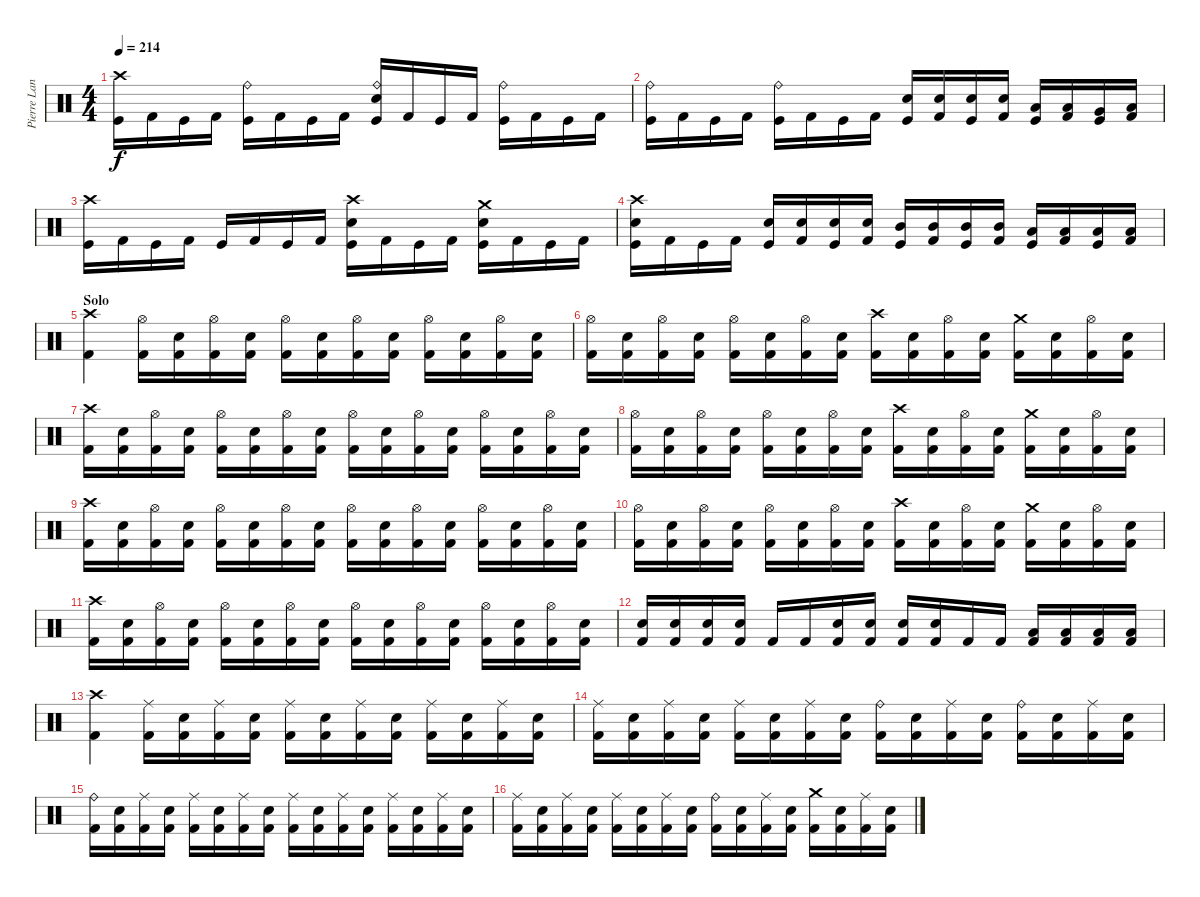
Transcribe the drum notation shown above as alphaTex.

\track ("Pierre Langlois (Drums)" "Pierre Lan") {instrument percussion}
\staff {score}
\articulation defaults
\ts (4 4)
\tempo 214
\clef neutral
\ks c
("Crash high (hit)" "Kick (hit)").16{dy f} "Kick (hit) 2".16 "Kick (hit)".16 "Kick (hit) 2".16 ("Ride (bell)" "Kick (hit)").16 "Kick (hit) 2".16 "Kick (hit)".16 "Kick (hit) 2".16 ("Ride (bell)" "Snare (hit) 2" "Kick (hit)").16 "Kick (hit) 2".16 "Kick (hit)".16 "Kick (hit) 2".16 ("Ride (bell)" "Kick (hit)").16 "Kick (hit) 2".16 "Kick (hit)".16 "Kick (hit) 2".16 |
("Ride (bell)" "Kick (hit)").16 "Kick (hit) 2".16 "Kick (hit)".16 "Kick (hit) 2".16 ("Ride (bell)" "Kick (hit)").16 "Kick (hit) 2".16 "Kick (hit)".16 "Kick (hit) 2".16 ("Snare (hit) 2" "Kick (hit)").16 ("Snare (hit) 2" "Kick (hit) 2").16 ("Snare (hit) 2" "Kick (hit)").16 ("Snare (hit) 2" "Kick (hit) 2").16 ("Low Tom (hit)" "Kick (hit)").16 ("Low Tom (hit)" "Kick (hit) 2").16 ("Very Low Tom (hit)" "Kick (hit)").16 ("Low Floor Tom (hit)" "Kick (hit) 2").16 |
("Crash high (hit)" "Kick (hit)").16 "Kick (hit) 2".16 "Kick (hit)".16 "Kick (hit) 2".16 "Kick (hit)".16 "Kick (hit) 2".16 "Kick (hit)".16 "Kick (hit) 2".16 ("Crash high (hit)" "Snare (hit) 2" "Kick (hit)").16 "Kick (hit) 2".16 "Kick (hit)".16 "Kick (hit) 2".16 ("Crash medium (hit)" "Snare (hit) 2" "Kick (hit)").16 "Kick (hit) 2".16 "Kick (hit)".16 "Kick (hit) 2".16 |
("Crash high (hit)" "Snare (hit) 2" "Kick (hit)").16 "Kick (hit) 2".16 "Kick (hit)".16 "Kick (hit) 2".16 ("Snare (hit) 2" "Kick (hit)").16 ("Snare (hit) 2" "Kick (hit) 2").16 ("Snare (hit) 2" "Kick (hit)").16 ("Snare (hit) 2" "Kick (hit) 2").16 ("Mid Tom (hit)" "Kick (hit)").16 ("Mid Tom (hit)" "Kick (hit) 2").16 ("Mid Tom (hit)" "Kick (hit)").16 ("Mid Tom (hit)" "Kick (hit) 2").16 ("Low Tom (hit)" "Kick (hit)").16 ("Low Tom (hit)" "Kick (hit) 2").16 ("Low Floor Tom (hit)" "Kick (hit)").16 ("Low Floor Tom (hit)" "Kick (hit) 2").16 |
\section ("" "Solo")
("Crash high (hit)" "Kick (hit) 2").4 ("Hi-Hat (open)" "Kick (hit) 2").16 ("Snare (hit) 2" "Kick (hit) 2").16 ("Hi-Hat (open)" "Kick (hit) 2").16 ("Snare (hit) 2" "Kick (hit) 2").16 ("Hi-Hat (open)" "Kick (hit) 2").16 ("Snare (hit) 2" "Kick (hit) 2").16 ("Hi-Hat (open)" "Kick (hit) 2").16 ("Snare (hit) 2" "Kick (hit) 2").16 ("Hi-Hat (open)" "Kick (hit) 2").16 ("Snare (hit) 2" "Kick (hit) 2").16 ("Hi-Hat (open)" "Kick (hit) 2").16 ("Snare (hit) 2" "Kick (hit) 2").16 |
("Hi-Hat (open)" "Kick (hit) 2").16 ("Snare (hit) 2" "Kick (hit) 2").16 ("Hi-Hat (open)" "Kick (hit) 2").16 ("Snare (hit) 2" "Kick (hit) 2").16 ("Hi-Hat (open)" "Kick (hit) 2").16 ("Snare (hit) 2" "Kick (hit) 2").16 ("Hi-Hat (open)" "Kick (hit) 2").16 ("Snare (hit) 2" "Kick (hit) 2").16 ("Crash high (hit)" "Kick (hit) 2").16 ("Snare (hit) 2" "Kick (hit) 2").16 ("Hi-Hat (open)" "Kick (hit) 2").16 ("Snare (hit) 2" "Kick (hit) 2").16 ("Crash medium (hit)" "Kick (hit) 2").16 ("Snare (hit) 2" "Kick (hit) 2").16 ("Hi-Hat (open)" "Kick (hit) 2").16 ("Snare (hit) 2" "Kick (hit) 2").16 |
("Crash high (hit)" "Kick (hit) 2").16 ("Snare (hit) 2" "Kick (hit) 2").16 ("Hi-Hat (open)" "Kick (hit) 2").16 ("Snare (hit) 2" "Kick (hit) 2").16 ("Hi-Hat (open)" "Kick (hit) 2").16 ("Snare (hit) 2" "Kick (hit) 2").16 ("Hi-Hat (open)" "Kick (hit) 2").16 ("Snare (hit) 2" "Kick (hit) 2").16 ("Hi-Hat (open)" "Kick (hit) 2").16 ("Snare (hit) 2" "Kick (hit) 2").16 ("Hi-Hat (open)" "Kick (hit) 2").16 ("Snare (hit) 2" "Kick (hit) 2").16 ("Hi-Hat (open)" "Kick (hit) 2").16 ("Snare (hit) 2" "Kick (hit) 2").16 ("Hi-Hat (open)" "Kick (hit) 2").16 ("Snare (hit) 2" "Kick (hit) 2").16 |
("Hi-Hat (open)" "Kick (hit) 2").16 ("Snare (hit) 2" "Kick (hit) 2").16 ("Hi-Hat (open)" "Kick (hit) 2").16 ("Snare (hit) 2" "Kick (hit) 2").16 ("Hi-Hat (open)" "Kick (hit) 2").16 ("Snare (hit) 2" "Kick (hit) 2").16 ("Hi-Hat (open)" "Kick (hit) 2").16 ("Snare (hit) 2" "Kick (hit) 2").16 ("Crash high (hit)" "Kick (hit) 2").16 ("Snare (hit) 2" "Kick (hit) 2").16 ("Hi-Hat (open)" "Kick (hit) 2").16 ("Snare (hit) 2" "Kick (hit) 2").16 ("Crash medium (hit)" "Kick (hit) 2").16 ("Snare (hit) 2" "Kick (hit) 2").16 ("Hi-Hat (open)" "Kick (hit) 2").16 ("Snare (hit) 2" "Kick (hit) 2").16 |
("Crash high (hit)" "Kick (hit) 2").16 ("Snare (hit) 2" "Kick (hit) 2").16 ("Hi-Hat (open)" "Kick (hit) 2").16 ("Snare (hit) 2" "Kick (hit) 2").16 ("Hi-Hat (open)" "Kick (hit) 2").16 ("Snare (hit) 2" "Kick (hit) 2").16 ("Hi-Hat (open)" "Kick (hit) 2").16 ("Snare (hit) 2" "Kick (hit) 2").16 ("Hi-Hat (open)" "Kick (hit) 2").16 ("Snare (hit) 2" "Kick (hit) 2").16 ("Hi-Hat (open)" "Kick (hit) 2").16 ("Snare (hit) 2" "Kick (hit) 2").16 ("Hi-Hat (open)" "Kick (hit) 2").16 ("Snare (hit) 2" "Kick (hit) 2").16 ("Hi-Hat (open)" "Kick (hit) 2").16 ("Snare (hit) 2" "Kick (hit) 2").16 |
("Hi-Hat (open)" "Kick (hit) 2").16 ("Snare (hit) 2" "Kick (hit) 2").16 ("Hi-Hat (open)" "Kick (hit) 2").16 ("Snare (hit) 2" "Kick (hit) 2").16 ("Hi-Hat (open)" "Kick (hit) 2").16 ("Snare (hit) 2" "Kick (hit) 2").16 ("Hi-Hat (open)" "Kick (hit) 2").16 ("Snare (hit) 2" "Kick (hit) 2").16 ("Crash high (hit)" "Kick (hit) 2").16 ("Snare (hit) 2" "Kick (hit) 2").16 ("Hi-Hat (open)" "Kick (hit) 2").16 ("Snare (hit) 2" "Kick (hit) 2").16 ("Crash medium (hit)" "Kick (hit) 2").16 ("Snare (hit) 2" "Kick (hit) 2").16 ("Hi-Hat (open)" "Kick (hit) 2").16 ("Snare (hit) 2" "Kick (hit) 2").16 |
("Crash high (hit)" "Kick (hit) 2").16 ("Snare (hit) 2" "Kick (hit) 2").16 ("Hi-Hat (open)" "Kick (hit) 2").16 ("Snare (hit) 2" "Kick (hit) 2").16 ("Hi-Hat (open)" "Kick (hit) 2").16 ("Snare (hit) 2" "Kick (hit) 2").16 ("Hi-Hat (open)" "Kick (hit) 2").16 ("Snare (hit) 2" "Kick (hit) 2").16 ("Hi-Hat (open)" "Kick (hit) 2").16 ("Snare (hit) 2" "Kick (hit) 2").16 ("Hi-Hat (open)" "Kick (hit) 2").16 ("Snare (hit) 2" "Kick (hit) 2").16 ("Hi-Hat (open)" "Kick (hit) 2").16 ("Snare (hit) 2" "Kick (hit) 2").16 ("Hi-Hat (open)" "Kick (hit) 2").16 ("Snare (hit) 2" "Kick (hit) 2").16 |
("Snare (hit) 2" "Kick (hit) 2").16 ("Snare (hit) 2" "Kick (hit) 2").16 ("Snare (hit) 2" "Kick (hit) 2").16 ("Snare (hit) 2" "Kick (hit) 2").16 "Kick (hit) 2".16 "Kick (hit) 2".16 ("Snare (hit) 2" "Kick (hit) 2").16 ("Snare (hit) 2" "Kick (hit) 2").16 ("Snare (hit) 2" "Kick (hit) 2").16 ("Snare (hit) 2" "Kick (hit) 2").16 "Kick (hit) 2".16 "Kick (hit) 2".16 ("Low Tom (hit)" "Kick (hit) 2").16 ("Low Tom (hit)" "Kick (hit) 2").16 ("Low Floor Tom (hit)" "Kick (hit) 2").16 ("Low Floor Tom (hit)" "Kick (hit) 2").16 |
("Crash high (hit)" "Kick (hit) 2").4 ("Ride (middle)" "Kick (hit) 2").16 ("Snare (hit) 2" "Kick (hit) 2").16 ("Ride (middle)" "Kick (hit) 2").16 ("Snare (hit) 2" "Kick (hit) 2").16 ("Ride (middle)" "Kick (hit) 2").16 ("Snare (hit) 2" "Kick (hit) 2").16 ("Ride (middle)" "Kick (hit) 2").16 ("Snare (hit) 2" "Kick (hit) 2").16 ("Ride (middle)" "Kick (hit) 2").16 ("Snare (hit) 2" "Kick (hit) 2").16 ("Ride (middle)" "Kick (hit) 2").16 ("Snare (hit) 2" "Kick (hit) 2").16 |
("Ride (middle)" "Kick (hit) 2").16 ("Snare (hit) 2" "Kick (hit) 2").16 ("Ride (middle)" "Kick (hit) 2").16 ("Snare (hit) 2" "Kick (hit) 2").16 ("Ride (middle)" "Kick (hit) 2").16 ("Snare (hit) 2" "Kick (hit) 2").16 ("Ride (middle)" "Kick (hit) 2").16 ("Snare (hit) 2" "Kick (hit) 2").16 ("Ride (bell)" "Kick (hit) 2").16 ("Snare (hit) 2" "Kick (hit) 2").16 ("Ride (middle)" "Kick (hit) 2").16 ("Snare (hit) 2" "Kick (hit) 2").16 ("Ride (bell)" "Kick (hit) 2").16 ("Snare (hit) 2" "Kick (hit) 2").16 ("Ride (middle)" "Kick (hit) 2").16 ("Snare (hit) 2" "Kick (hit) 2").16 |
("Ride (bell)" "Kick (hit) 2").16 ("Snare (hit) 2" "Kick (hit) 2").16 ("Ride (middle)" "Kick (hit) 2").16 ("Snare (hit) 2" "Kick (hit) 2").16 ("Ride (middle)" "Kick (hit) 2").16 ("Snare (hit) 2" "Kick (hit) 2").16 ("Ride (middle)" "Kick (hit) 2").16 ("Snare (hit) 2" "Kick (hit) 2").16 ("Ride (middle)" "Kick (hit) 2").16 ("Snare (hit) 2" "Kick (hit) 2").16 ("Ride (middle)" "Kick (hit) 2").16 ("Snare (hit) 2" "Kick (hit) 2").16 ("Ride (middle)" "Kick (hit) 2").16 ("Snare (hit) 2" "Kick (hit) 2").16 ("Ride (middle)" "Kick (hit) 2").16 ("Snare (hit) 2" "Kick (hit) 2").16 |
("Ride (middle)" "Kick (hit) 2").16 ("Snare (hit) 2" "Kick (hit) 2").16 ("Ride (middle)" "Kick (hit) 2").16 ("Snare (hit) 2" "Kick (hit) 2").16 ("Ride (middle)" "Kick (hit) 2").16 ("Snare (hit) 2" "Kick (hit) 2").16 ("Ride (middle)" "Kick (hit) 2").16 ("Snare (hit) 2" "Kick (hit) 2").16 ("Ride (bell)" "Kick (hit) 2").16 ("Snare (hit) 2" "Kick (hit) 2").16 ("Ride (middle)" "Kick (hit) 2").16 ("Snare (hit) 2" "Kick (hit) 2").16 ("Crash medium (hit)" "Kick (hit) 2").16 ("Snare (hit) 2" "Kick (hit) 2").16 ("Ride (middle)" "Kick (hit) 2").16 ("Snare (hit) 2" "Kick (hit) 2").16
